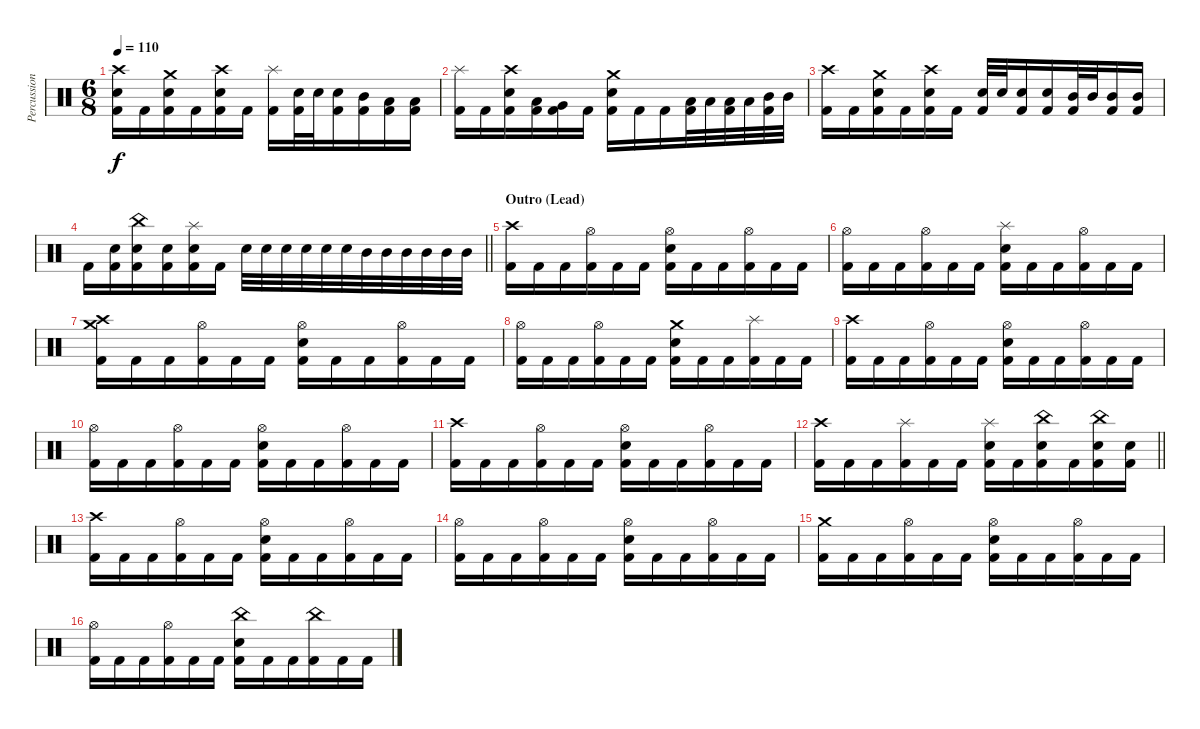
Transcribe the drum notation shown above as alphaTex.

\track ("Percussion" "Percussion") {instrument percussion}
\staff {score}
\articulation defaults
\ts (6 8)
\tempo 110
\clef neutral
\ks c
("Crash high (hit)" "Electric Snare (hit)" "Kick (hit) 2").16{dy f} "Kick (hit) 2".16 ("Crash medium (hit)" "Electric Snare (hit)" "Kick (hit) 2").16 "Kick (hit) 2".16 ("Crash high (hit)" "Electric Snare (hit)" "Kick (hit) 2").16 "Kick (hit) 2".16 ("Splash (hit)" "Kick (hit) 2").16 ("Electric Snare (hit)" "Kick (hit) 2").32 "Electric Snare (hit)".32 ("Electric Snare (hit)" "Kick (hit) 2").16 ("Mid Tom (hit)" "Kick (hit) 2").16 ("Low Tom (hit)" "Kick (hit) 2").16 ("Low Tom (hit)" "Kick (hit) 2").16 |
("Splash (hit)" "Kick (hit) 2").16 "Kick (hit) 2".16 ("Crash high (hit)" "Electric Snare (hit)" "Kick (hit) 2").16 ("Low Tom (hit)" "Kick (hit) 2").16 ("Very Low Tom (hit)" "Kick (hit) 2").16 "Kick (hit) 2".16 ("Crash medium (hit)" "Electric Snare (hit)" "Kick (hit) 2").16 "Kick (hit) 2".16 "Kick (hit) 2".16 ("Low Tom (hit)" "Kick (hit) 2").32 "Low Tom (hit)".32 ("Low Tom (hit)" "Kick (hit) 2").32 "Low Tom (hit)".32 ("Mid Tom (hit)" "Kick (hit) 2").32 "Mid Tom (hit)".32 |
("Crash high (hit)" "Kick (hit) 2").16 "Kick (hit) 2".16 ("Crash medium (hit)" "Electric Snare (hit)" "Kick (hit) 2").16 "Kick (hit) 2".16 ("Crash high (hit)" "Electric Snare (hit)" "Kick (hit) 2").16 "Kick (hit) 2".16 ("Electric Snare (hit)" "Kick (hit) 2").32 "Electric Snare (hit)".32 ("Electric Snare (hit)" "Kick (hit) 2").16 ("Electric Snare (hit)" "Kick (hit) 2").16 ("Mid Tom (hit)" "Kick (hit) 2").32 "Mid Tom (hit)".32 ("Mid Tom (hit)" "Kick (hit) 2").16 ("Mid Tom (hit)" "Kick (hit) 2").16 |
\barLineRight lightlight "Kick (hit) 2".16
("Electric Snare (hit)" "Kick (hit) 2").16 ("China (hit)" "Electric Snare (hit)" "Kick (hit) 2").16 ("Electric Snare (hit)" "Kick (hit) 2").16 ("Splash (hit)" "Electric Snare (hit)" "Kick (hit) 2").16 "Kick (hit) 2".16 "Electric Snare (hit)".32 "Electric Snare (hit)".32 "Electric Snare (hit)".32 "Electric Snare (hit)".32 "Electric Snare (hit)".32 "Electric Snare (hit)".32 "Mid Tom (hit)".32 "Mid Tom (hit)".32 "Mid Tom (hit)".32 "Mid Tom (hit)".32 "Mid Tom (hit)".32 "Mid Tom (hit)".32 |
\section ("" "Outro (Lead)")
("Crash high (hit)" "Kick (hit) 2").16 "Kick (hit) 2".16 "Kick (hit) 2".16 ("Hi-Hat (open)" "Kick (hit) 2").16 "Kick (hit) 2".16 "Kick (hit) 2".16 ("Hi-Hat (open)" "Electric Snare (hit)" "Kick (hit) 2").16 "Kick (hit) 2".16 "Kick (hit) 2".16 ("Hi-Hat (open)" "Kick (hit) 2").16 "Kick (hit) 2".16 "Kick (hit) 2".16 |
("Hi-Hat (open)" "Kick (hit) 2").16 "Kick (hit) 2".16 "Kick (hit) 2".16 ("Hi-Hat (open)" "Kick (hit) 2").16 "Kick (hit) 2".16 "Kick (hit) 2".16 ("Splash (hit)" "Electric Snare (hit)" "Kick (hit) 2").16 "Kick (hit) 2".16 "Kick (hit) 2".16 ("Hi-Hat (open)" "Kick (hit) 2").16 "Kick (hit) 2".16 "Kick (hit) 2".16 |
("Crash high (hit)" "Crash medium (hit)" "Kick (hit) 2").16 "Kick (hit) 2".16 "Kick (hit) 2".16 ("Hi-Hat (open)" "Kick (hit) 2").16 "Kick (hit) 2".16 "Kick (hit) 2".16 ("Hi-Hat (open)" "Electric Snare (hit)" "Kick (hit) 2").16 "Kick (hit) 2".16 "Kick (hit) 2".16 ("Hi-Hat (open)" "Kick (hit) 2").16 "Kick (hit) 2".16 "Kick (hit) 2".16 |
("Hi-Hat (open)" "Kick (hit) 2").16 "Kick (hit) 2".16 "Kick (hit) 2".16 ("Hi-Hat (open)" "Kick (hit) 2").16 "Kick (hit) 2".16 "Kick (hit) 2".16 ("Crash medium (hit)" "Electric Snare (hit)" "Kick (hit) 2").16 "Kick (hit) 2".16 "Kick (hit) 2".16 ("Splash (hit)" "Kick (hit) 2").16 "Kick (hit) 2".16 "Kick (hit) 2".16 |
("Crash high (hit)" "Kick (hit) 2").16 "Kick (hit) 2".16 "Kick (hit) 2".16 ("Hi-Hat (open)" "Kick (hit) 2").16 "Kick (hit) 2".16 "Kick (hit) 2".16 ("Hi-Hat (open)" "Electric Snare (hit)" "Kick (hit) 2").16 "Kick (hit) 2".16 "Kick (hit) 2".16 ("Hi-Hat (open)" "Kick (hit) 2").16 "Kick (hit) 2".16 "Kick (hit) 2".16 |
("Hi-Hat (open)" "Kick (hit) 2").16 "Kick (hit) 2".16 "Kick (hit) 2".16 ("Hi-Hat (open)" "Kick (hit) 2").16 "Kick (hit) 2".16 "Kick (hit) 2".16 ("Hi-Hat (open)" "Electric Snare (hit)" "Kick (hit) 2").16 "Kick (hit) 2".16 "Kick (hit) 2".16 ("Hi-Hat (open)" "Kick (hit) 2").16 "Kick (hit) 2".16 "Kick (hit) 2".16 |
("Crash high (hit)" "Kick (hit) 2").16 "Kick (hit) 2".16 "Kick (hit) 2".16 ("Hi-Hat (open)" "Kick (hit) 2").16 "Kick (hit) 2".16 "Kick (hit) 2".16 ("Hi-Hat (open)" "Electric Snare (hit)" "Kick (hit) 2").16 "Kick (hit) 2".16 "Kick (hit) 2".16 ("Hi-Hat (open)" "Kick (hit) 2").16 "Kick (hit) 2".16 "Kick (hit) 2".16 |
\barLineRight lightlight
("Crash high (hit)" "Kick (hit) 2").16 "Kick (hit) 2".16 "Kick (hit) 2".16 ("Splash (hit)" "Kick (hit) 2").16 "Kick (hit) 2".16 "Kick (hit) 2".16 ("Splash (hit)" "Electric Snare (hit)" "Kick (hit) 2").16 "Kick (hit) 2".16 ("China (hit)" "Electric Snare (hit)" "Kick (hit) 2").16 "Kick (hit) 2".16 ("China (hit)" "Electric Snare (hit)" "Kick (hit) 2").16 ("Electric Snare (hit)" "Kick (hit) 2").16 |
("Crash high (hit)" "Kick (hit) 2").16 "Kick (hit) 2".16 "Kick (hit) 2".16 ("Hi-Hat (open)" "Kick (hit) 2").16 "Kick (hit) 2".16 "Kick (hit) 2".16 ("Hi-Hat (open)" "Electric Snare (hit)" "Kick (hit) 2").16 "Kick (hit) 2".16 "Kick (hit) 2".16 ("Hi-Hat (open)" "Kick (hit) 2").16 "Kick (hit) 2".16 "Kick (hit) 2".16 |
("Hi-Hat (open)" "Kick (hit) 2").16 "Kick (hit) 2".16 "Kick (hit) 2".16 ("Hi-Hat (open)" "Kick (hit) 2").16 "Kick (hit) 2".16 "Kick (hit) 2".16 ("Hi-Hat (open)" "Electric Snare (hit)" "Kick (hit) 2").16 "Kick (hit) 2".16 "Kick (hit) 2".16 ("Hi-Hat (open)" "Kick (hit) 2").16 "Kick (hit) 2".16 "Kick (hit) 2".16 |
("Crash medium (hit)" "Kick (hit) 2").16 "Kick (hit) 2".16 "Kick (hit) 2".16 ("Hi-Hat (open)" "Kick (hit) 2").16 "Kick (hit) 2".16 "Kick (hit) 2".16 ("Hi-Hat (open)" "Electric Snare (hit)" "Kick (hit) 2").16 "Kick (hit) 2".16 "Kick (hit) 2".16 ("Hi-Hat (open)" "Kick (hit) 2").16 "Kick (hit) 2".16 "Kick (hit) 2".16 |
("Hi-Hat (open)" "Kick (hit) 2").16 "Kick (hit) 2".16 "Kick (hit) 2".16 ("Hi-Hat (open)" "Kick (hit) 2").16 "Kick (hit) 2".16 "Kick (hit) 2".16 ("China (hit)" "Electric Snare (hit)" "Kick (hit) 2").16 "Kick (hit) 2".16 "Kick (hit) 2".16 ("China (hit)" "Kick (hit) 2").16 "Kick (hit) 2".16 "Kick (hit) 2".16
